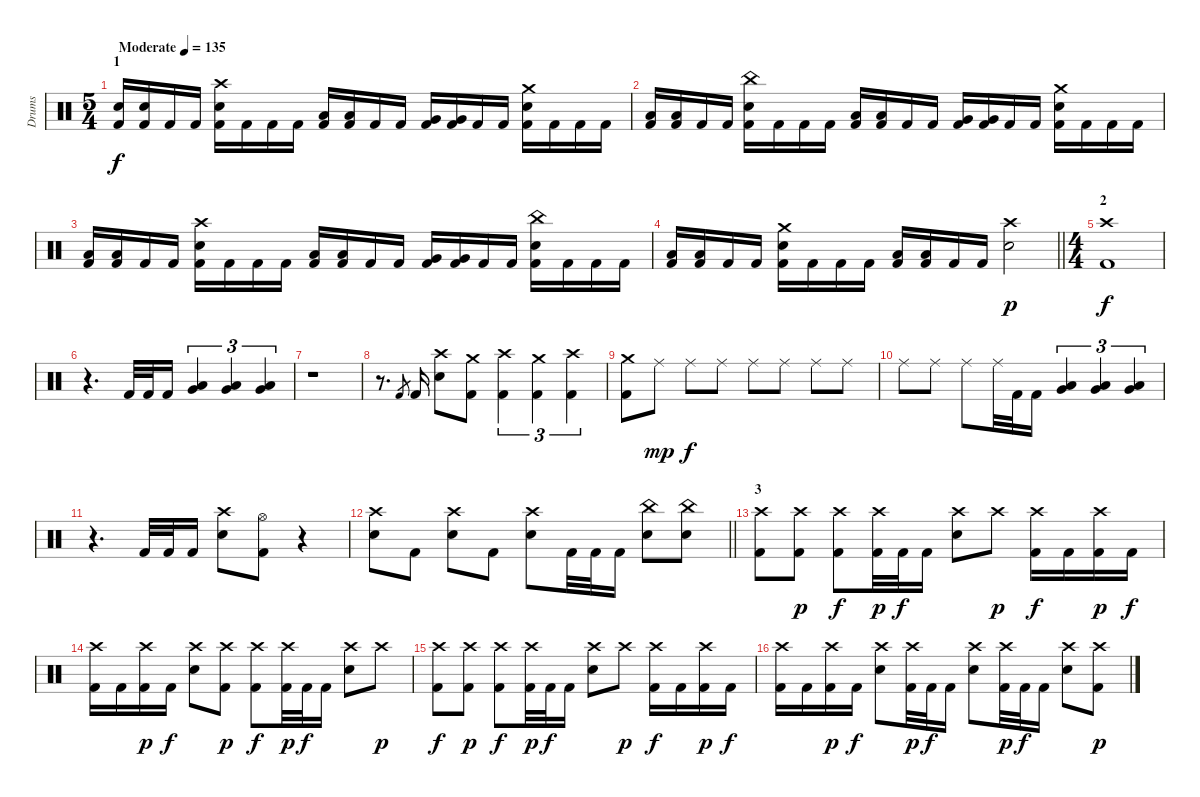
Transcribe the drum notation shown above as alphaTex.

\track ("Drums" "Drums") {instrument percussion}
\staff {score}
\articulation defaults
\ts (5 4)
\section ("" "1")
\tempo (135 "Moderate")
\clef neutral
\ks c
("Electric Snare (hit)" "Kick (hit) 2").16{dy f} ("Electric Snare (hit)" "Kick (hit) 2").16 "Kick (hit) 2".16 "Kick (hit) 2".16 ("Crash high (hit)" "Electric Snare (hit)" "Kick (hit) 2").16 "Kick (hit) 2".16 "Kick (hit) 2".16 "Kick (hit) 2".16 ("Low Tom (hit)" "Kick (hit) 2").16 ("Low Tom (hit)" "Kick (hit) 2").16 "Kick (hit) 2".16 "Kick (hit) 2".16 ("Very Low Tom (hit)" "Kick (hit) 2").16 ("Very Low Tom (hit)" "Kick (hit) 2").16 "Kick (hit) 2".16 "Kick (hit) 2".16 ("Crash medium (hit)" "Electric Snare (hit)" "Kick (hit) 2").16 "Kick (hit) 2".16 "Kick (hit) 2".16 "Kick (hit) 2".16 |
("Low Tom (hit)" "Kick (hit) 2").16 ("Low Tom (hit)" "Kick (hit) 2").16 "Kick (hit) 2".16 "Kick (hit) 2".16 ("China (hit)" "Electric Snare (hit)" "Kick (hit) 2").16 "Kick (hit) 2".16 "Kick (hit) 2".16 "Kick (hit) 2".16 ("Low Tom (hit)" "Kick (hit) 2").16 ("Low Tom (hit)" "Kick (hit) 2").16 "Kick (hit) 2".16 "Kick (hit) 2".16 ("Very Low Tom (hit)" "Kick (hit) 2").16 ("Very Low Tom (hit)" "Kick (hit) 2").16 "Kick (hit) 2".16 "Kick (hit) 2".16 ("Crash medium (hit)" "Electric Snare (hit)" "Kick (hit) 2").16 "Kick (hit) 2".16 "Kick (hit) 2".16 "Kick (hit) 2".16 |
("Low Tom (hit)" "Kick (hit) 2").16 ("Low Tom (hit)" "Kick (hit) 2").16 "Kick (hit) 2".16 "Kick (hit) 2".16 ("Crash high (hit)" "Electric Snare (hit)" "Kick (hit) 2").16 "Kick (hit) 2".16 "Kick (hit) 2".16 "Kick (hit) 2".16 ("Low Tom (hit)" "Kick (hit) 2").16 ("Low Tom (hit)" "Kick (hit) 2").16 "Kick (hit) 2".16 "Kick (hit) 2".16 ("Very Low Tom (hit)" "Kick (hit) 2").16 ("Very Low Tom (hit)" "Kick (hit) 2").16 "Kick (hit) 2".16 "Kick (hit) 2".16 ("China (hit)" "Electric Snare (hit)" "Kick (hit) 2").16 "Kick (hit) 2".16 "Kick (hit) 2".16 "Kick (hit) 2".16 |
\barLineRight lightlight
("Low Tom (hit)" "Kick (hit) 2").16 ("Low Tom (hit)" "Kick (hit) 2").16 "Kick (hit) 2".16 "Kick (hit) 2".16 ("Crash medium (hit)" "Electric Snare (hit)" "Kick (hit) 2").16 "Kick (hit) 2".16 "Kick (hit) 2".16 "Kick (hit) 2".16 ("Low Tom (hit)" "Kick (hit) 2").16 ("Low Tom (hit)" "Kick (hit) 2").16 "Kick (hit) 2".16 "Kick (hit) 2".16 ("Crash high (hit)" "Electric Snare (hit)").2{dy p} |
\ts (4 4)
\section ("" "2")
("Crash high (hit)" "Kick (hit) 2").1{dy f} |
r.4{d} "Kick (hit) 2".32 "Kick (hit) 2".32 "Kick (hit) 2".16 ("Low Tom (hit)" "Very Low Tom (hit)").4{tu (3 2)} ("Low Tom (hit)" "Very Low Tom (hit)").4{tu (3 2)} ("Low Tom (hit)" "Very Low Tom (hit)").4{tu (3 2)} |
r.1 |
r.8{d} "Kick (hit) 2".8{gr} "Kick (hit) 2".16 ("Crash high (hit)" "Electric Snare (hit)").8 ("Crash medium (hit)" "Kick (hit) 2").8 ("Crash high (hit)" "Kick (hit) 2").4{tu (3 2)} ("Crash medium (hit)" "Kick (hit) 2").4{tu (3 2)} ("Crash high (hit)" "Kick (hit) 2").4{tu (3 2)} |
("Crash medium (hit)" "Kick (hit) 2").8 "Ride (middle)".8{dy mp} "Ride (middle)".8{dy f} "Ride (middle)".8 "Ride (middle)".8 "Ride (middle)".8 "Ride (middle)".8 "Ride (middle)".8 |
"Ride (middle)".8 "Ride (middle)".8 "Ride (middle)".8 "Ride (middle)".32 "Kick (hit) 2".32 "Kick (hit) 2".16 ("Low Tom (hit)" "Very Low Tom (hit)").4{tu (3 2)} ("Low Tom (hit)" "Very Low Tom (hit)").4{tu (3 2)} ("Low Tom (hit)" "Very Low Tom (hit)").4{tu (3 2)} |
r.4{d} "Kick (hit) 2".32 "Kick (hit) 2".32 "Kick (hit) 2".16 ("Crash high (hit)" "Electric Snare (hit)").8 ("Hi-Hat (open)" "Kick (hit) 2").8 r.4 |
\barLineRight lightlight
("Crash high (hit)" "Electric Snare (hit)").8 "Kick (hit) 2".8 ("Crash high (hit)" "Electric Snare (hit)").8 "Kick (hit) 2".8 ("Crash high (hit)" "Electric Snare (hit)").8 "Kick (hit) 2".32 "Kick (hit) 2".32 "Kick (hit) 2".16 ("China (hit)" "Electric Snare (hit)").8 ("China (hit)" "Electric Snare (hit)").8 |
\section ("" "3")
("Crash high (hit)" "Kick (hit) 2").8 ("Crash high (hit)" "Kick (hit) 2").8{dy p} ("Crash high (hit)" "Kick (hit) 2").8{dy f} ("Crash high (hit)" "Kick (hit) 2").32{dy p} "Kick (hit) 2".32{dy f} "Kick (hit) 2".16 ("Crash high (hit)" "Electric Snare (hit)").8 "Crash high (hit)".8{dy p} ("Crash high (hit)" "Kick (hit) 2").16{dy f} "Kick (hit) 2".16 ("Crash high (hit)" "Kick (hit) 2").16{dy p} "Kick (hit) 2".16{dy f} |
("Crash high (hit)" "Kick (hit) 2").16 "Kick (hit) 2".16 ("Crash high (hit)" "Kick (hit) 2").16{dy p} "Kick (hit) 2".16{dy f} ("Crash high (hit)" "Electric Snare (hit)").8 ("Crash high (hit)" "Kick (hit) 2").8{dy p} ("Crash high (hit)" "Kick (hit) 2").8{dy f} ("Crash high (hit)" "Kick (hit) 2").32{dy p} "Kick (hit) 2".32{dy f} "Kick (hit) 2".16 ("Crash high (hit)" "Electric Snare (hit)").8 "Crash high (hit)".8{dy p} |
("Crash high (hit)" "Kick (hit) 2").8{dy f} ("Crash high (hit)" "Kick (hit) 2").8{dy p} ("Crash high (hit)" "Kick (hit) 2").8{dy f} ("Crash high (hit)" "Kick (hit) 2").32{dy p} "Kick (hit) 2".32{dy f} "Kick (hit) 2".16 ("Crash high (hit)" "Electric Snare (hit)").8 "Crash high (hit)".8{dy p} ("Crash high (hit)" "Kick (hit) 2").16{dy f} "Kick (hit) 2".16 ("Crash high (hit)" "Kick (hit) 2").16{dy p} "Kick (hit) 2".16{dy f} |
("Crash high (hit)" "Kick (hit) 2").16 "Kick (hit) 2".16 ("Crash high (hit)" "Kick (hit) 2").16{dy p} "Kick (hit) 2".16{dy f} ("Crash high (hit)" "Electric Snare (hit)").8 ("Crash high (hit)" "Kick (hit) 2").32{dy p} "Kick (hit) 2".32{dy f} "Kick (hit) 2".16 ("Crash high (hit)" "Electric Snare (hit)").8 ("Crash high (hit)" "Kick (hit) 2").32{dy p} "Kick (hit) 2".32{dy f} "Kick (hit) 2".16 ("Crash high (hit)" "Electric Snare (hit)").8 ("Crash high (hit)" "Kick (hit) 2").8{dy p}
